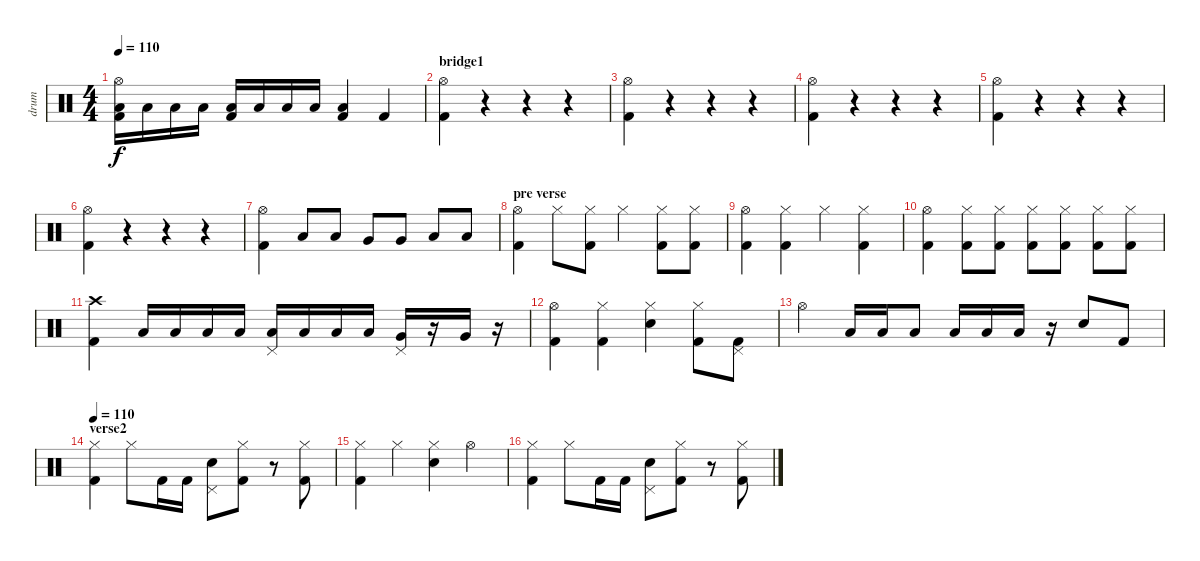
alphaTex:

\track ("drum" "drum") {instrument percussion}
\staff {score}
\articulation defaults
\ts (4 4)
\tempo 110
\clef neutral
\ks c
("Hi-Hat (open)" "Low Tom (hit)" "Kick (hit) 2").16{dy f} "Low Tom (hit)".16 "Low Tom (hit)".16 "Low Tom (hit)".16 ("Low Tom (hit)" "Kick (hit) 2").16 "Low Tom (hit)".16 "Low Tom (hit)".16 "Low Tom (hit)".16 ("Low Tom (hit)" "Kick (hit) 2").4 "Kick (hit) 2".4 |
\section ("" "bridge1")
("Hi-Hat (open)" "Kick (hit) 2").4 r.4 r.4 r.4 |
("Hi-Hat (open)" "Kick (hit) 2").4 r.4 r.4 r.4 |
("Hi-Hat (open)" "Kick (hit) 2").4 r.4 r.4 r.4 |
("Hi-Hat (open)" "Kick (hit) 2").4 r.4 r.4 r.4 |
("Hi-Hat (open)" "Kick (hit) 2").4 r.4 r.4 r.4 |
("Hi-Hat (open)" "Kick (hit) 2").4 "Low Tom (hit)".8 "Low Tom (hit)".8 "Very Low Tom (hit)".8 "Very Low Tom (hit)".8 "Low Tom (hit)".8 "Low Tom (hit)".8 |
\section ("" "pre verse")
("Hi-Hat (open)" "Kick (hit) 2").4 "Hi-Hat (closed)".8 ("Hi-Hat (closed)" "Kick (hit) 2").8 "Hi-Hat (closed)".4 ("Hi-Hat (closed)" "Kick (hit) 2").8 ("Hi-Hat (closed)" "Kick (hit) 2").8 |
("Hi-Hat (open)" "Kick (hit) 2").4 ("Hi-Hat (closed)" "Kick (hit) 2").4 "Hi-Hat (closed)".4 ("Hi-Hat (closed)" "Kick (hit) 2").4 |
("Hi-Hat (open)" "Kick (hit) 2").4 ("Hi-Hat (closed)" "Kick (hit) 2").8 ("Hi-Hat (closed)" "Kick (hit) 2").8 ("Hi-Hat (closed)" "Kick (hit) 2").8 ("Hi-Hat (closed)" "Kick (hit) 2").8 ("Hi-Hat (closed)" "Kick (hit) 2").8 ("Hi-Hat (closed)" "Kick (hit) 2").8 |
("Crash high (hit)" "Kick (hit) 2").4 "Low Tom (hit)".16 "Low Tom (hit)".16 "Low Tom (hit)".16 "Low Tom (hit)".16 ("Pedal Hi-Hat (hit)" "Low Floor Tom (hit)").16 "Low Floor Tom (hit)".16 "Low Floor Tom (hit)".16 "Low Floor Tom (hit)".16 ("Pedal Hi-Hat (hit)" "Very Low Tom (hit)").16 r.16 "Very Low Tom (hit)".16 r.16 |
("Hi-Hat (open)" "Kick (hit) 2").4 ("Hi-Hat (closed)" "Kick (hit) 2").4 ("Hi-Hat (closed)" "Electric Snare (hit)").4 ("Hi-Hat (closed)" "Kick (hit) 2").8 ("Pedal Hi-Hat (hit)" "Kick (hit) 2").8 |
"Hi-Hat (open)".4 "Low Tom (hit)".16 "Low Tom (hit)".16 "Low Tom (hit)".8 "Low Floor Tom (hit)".16 "Low Floor Tom (hit)".16 "Low Floor Tom (hit)".16 r.16 "Electric Snare (hit)".8 "Kick (hit) 2".8 |
\section ("" "verse2")
\tempo 110
("Hi-Hat (closed)" "Kick (hit) 2").4 "Hi-Hat (closed)".8 "Kick (hit) 2".16 "Kick (hit) 2".16 ("Pedal Hi-Hat (hit)" "Electric Snare (hit)").8 ("Hi-Hat (closed)" "Kick (hit) 2").8 r.8 ("Hi-Hat (closed)" "Kick (hit) 2").8 |
("Hi-Hat (closed)" "Kick (hit) 2").4 "Hi-Hat (closed)".4 ("Hi-Hat (closed)" "Electric Snare (hit)").4 "Hi-Hat (open)".4 |
("Hi-Hat (closed)" "Kick (hit) 2").4 "Hi-Hat (closed)".8 "Kick (hit) 2".16 "Kick (hit) 2".16 ("Pedal Hi-Hat (hit)" "Electric Snare (hit)").8 ("Hi-Hat (closed)" "Kick (hit) 2").8 r.8 ("Hi-Hat (closed)" "Kick (hit) 2").8
